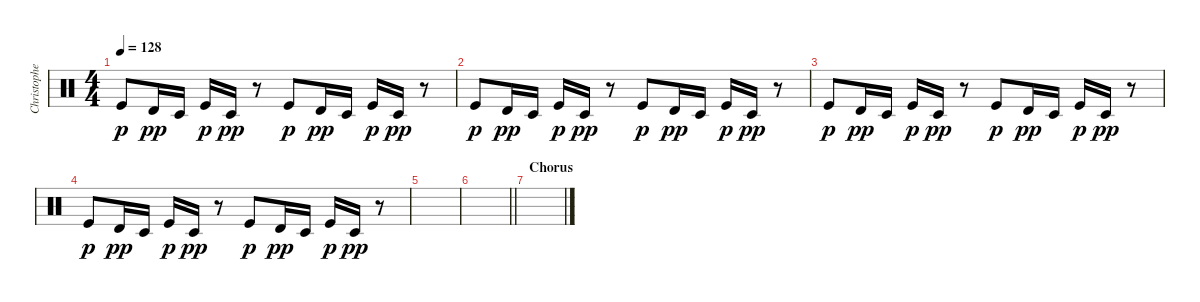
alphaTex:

\track ("Christopher - Drum Effects" "Christophe") {instrument percussion}
\staff {score}
\articulation defaults
\ts (4 4)
\tempo 128
\clef neutral
\ks c "Kick (hit)".8{dy p} "Timbale high (hit)".16{dy pp} "Timbale low (hit)".16 "Kick (hit)".16{dy p} "Timbale low (hit)".16{dy pp}
r.8 "Kick (hit)".8{dy p} "Timbale high (hit)".16{dy pp} "Timbale low (hit)".16 "Kick (hit)".16{dy p} "Timbale low (hit)".16{dy pp} r.8 |
"Kick (hit)".8{dy p} "Timbale high (hit)".16{dy pp} "Timbale low (hit)".16 "Kick (hit)".16{dy p} "Timbale low (hit)".16{dy pp} r.8 "Kick (hit)".8{dy p} "Timbale high (hit)".16{dy pp} "Timbale low (hit)".16 "Kick (hit)".16{dy p} "Timbale low (hit)".16{dy pp} r.8 |
"Kick (hit)".8{dy p} "Timbale high (hit)".16{dy pp} "Timbale low (hit)".16 "Kick (hit)".16{dy p} "Timbale low (hit)".16{dy pp} r.8 "Kick (hit)".8{dy p} "Timbale high (hit)".16{dy pp} "Timbale low (hit)".16 "Kick (hit)".16{dy p} "Timbale low (hit)".16{dy pp} r.8 |
"Kick (hit)".8{dy p} "Timbale high (hit)".16{dy pp} "Timbale low (hit)".16 "Kick (hit)".16{dy p} "Timbale low (hit)".16{dy pp} r.8 "Kick (hit)".8{dy p} "Timbale high (hit)".16{dy pp} "Timbale low (hit)".16 "Kick (hit)".16{dy p} "Timbale low (hit)".16{dy pp} r.8 |
|
\barLineRight lightlight
|
\section ("" "Chorus")
